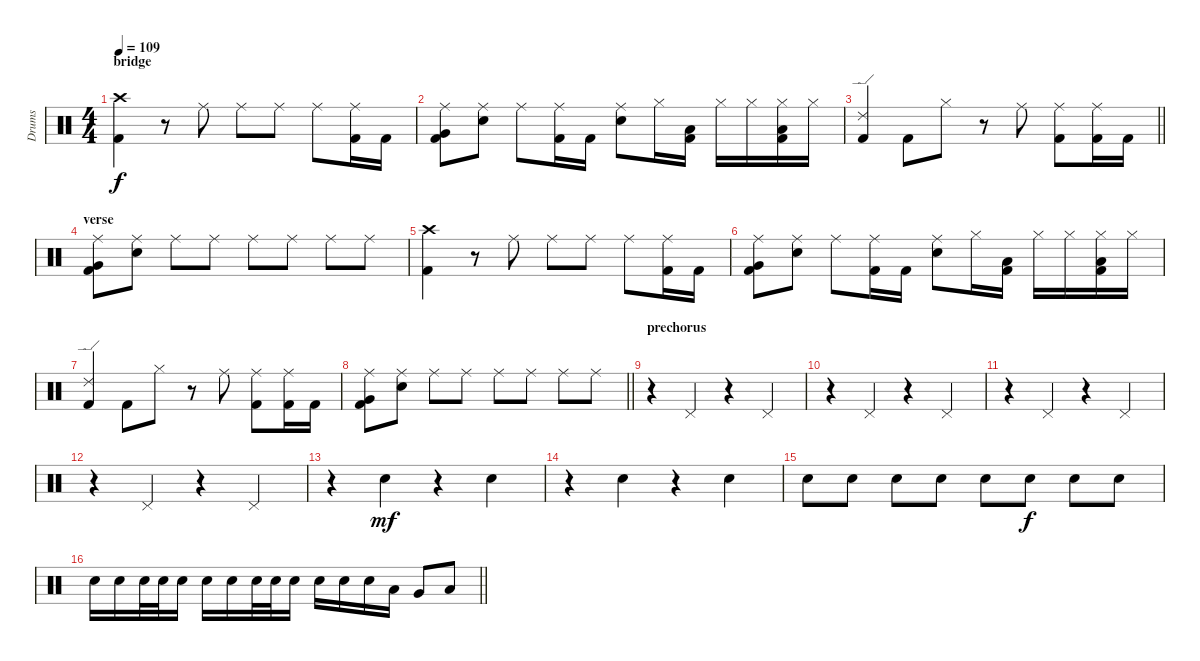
\track ("Drums" "Drums") {instrument percussion}
\staff {score}
\articulation defaults
\ts (4 4)
\section ("" "bridge")
\tempo 109
\clef neutral
\ks c
("Crash high (hit)" "Kick (hit) 2").4{dy f} r.8 "Ride (middle)".8 "Ride (middle)".8 "Ride (middle)".8 "Ride (middle)".8 ("Ride (middle)" "Kick (hit) 2").16 "Kick (hit) 2".16 |
("Ride (middle)" "Very Low Tom (hit)" "Kick (hit) 2").8 ("Ride (middle)" "Electric Snare (hit)").8 "Ride (middle)".8 ("Ride (middle)" "Kick (hit) 2").16 "Kick (hit) 2".16 ("Ride (middle)" "Electric Snare (hit)").8 "Hi-Hat (closed)".16 ("Low Floor Tom (hit)" "Kick (hit) 2").16 "Hi-Hat (closed)".16 "Hi-Hat (closed)".16 ("Hi-Hat (closed)" "Low Floor Tom (hit)" "Kick (hit) 2").16 "Hi-Hat (closed)".16 |
\barLineRight lightlight
("Ride (edge) 2" "Kick (hit) 2").4 "Kick (hit) 2".8 "Hi-Hat (closed)".8 r.8 "Ride (middle)".8 ("Ride (middle)" "Kick (hit) 2").8 ("Ride (middle)" "Kick (hit) 2").16 "Kick (hit) 2".16 |
\section ("" "verse")
("Ride (middle)" "Very Low Tom (hit)" "Kick (hit) 2").8 ("Ride (middle)" "Electric Snare (hit)").8 "Ride (middle)".8 "Ride (middle)".8 "Ride (middle)".8 "Ride (middle)".8 "Ride (middle)".8 "Ride (middle)".8 |
("Crash high (hit)" "Kick (hit) 2").4 r.8 "Ride (middle)".8 "Ride (middle)".8 "Ride (middle)".8 "Ride (middle)".8 ("Ride (middle)" "Kick (hit) 2").16 "Kick (hit) 2".16 |
("Ride (middle)" "Very Low Tom (hit)" "Kick (hit) 2").8 ("Ride (middle)" "Electric Snare (hit)").8 "Ride (middle)".8 ("Ride (middle)" "Kick (hit) 2").16 "Kick (hit) 2".16 ("Ride (middle)" "Electric Snare (hit)").8 "Hi-Hat (closed)".16 ("Low Floor Tom (hit)" "Kick (hit) 2").16 "Hi-Hat (closed)".16 "Hi-Hat (closed)".16 ("Hi-Hat (closed)" "Low Floor Tom (hit)" "Kick (hit) 2").16 "Hi-Hat (closed)".16 |
("Ride (edge) 2" "Kick (hit) 2").4 "Kick (hit) 2".8 "Hi-Hat (closed)".8 r.8 "Ride (middle)".8 ("Ride (middle)" "Kick (hit) 2").8 ("Ride (middle)" "Kick (hit) 2").16 "Kick (hit) 2".16 |
\barLineRight lightlight
("Ride (middle)" "Very Low Tom (hit)" "Kick (hit) 2").8 ("Ride (middle)" "Electric Snare (hit)").8 "Ride (middle)".8 "Ride (middle)".8 "Ride (middle)".8 "Ride (middle)".8 "Ride (middle)".8 "Ride (middle)".8 |
\section ("" "prechorus")
r.4 "Pedal Hi-Hat (hit)".4 r.4 "Pedal Hi-Hat (hit)".4 |
r.4 "Pedal Hi-Hat (hit)".4 r.4 "Pedal Hi-Hat (hit)".4 |
r.4 "Pedal Hi-Hat (hit)".4 r.4 "Pedal Hi-Hat (hit)".4 |
r.4 "Pedal Hi-Hat (hit)".4 r.4 "Pedal Hi-Hat (hit)".4 |
r.4 "Electric Snare (hit)".4{dy mf} r.4 "Electric Snare (hit)".4 |
r.4 "Electric Snare (hit)".4 r.4 "Electric Snare (hit)".4 |
"Electric Snare (hit)".8 "Electric Snare (hit)".8 "Electric Snare (hit)".8 "Electric Snare (hit)".8 "Electric Snare (hit)".8 "Electric Snare (hit)".8{dy f} "Electric Snare (hit)".8 "Electric Snare (hit)".8 |
\barLineRight lightlight "Electric Snare (hit)".16 "Electric Snare (hit)".16 "Electric Snare (hit)".32 "Electric Snare (hit)".32 "Electric Snare (hit)".16 "Electric Snare (hit)".16 "Electric Snare (hit)".16 "Electric Snare (hit)".32 "Electric Snare (hit)".32 "Electric Snare (hit)".16 "Electric Snare (hit)".16 "Electric Snare (hit)".16 "Electric Snare (hit)".16 "Low Tom (hit)".16 "Very Low Tom (hit)".8 "Low Floor Tom (hit)".8
